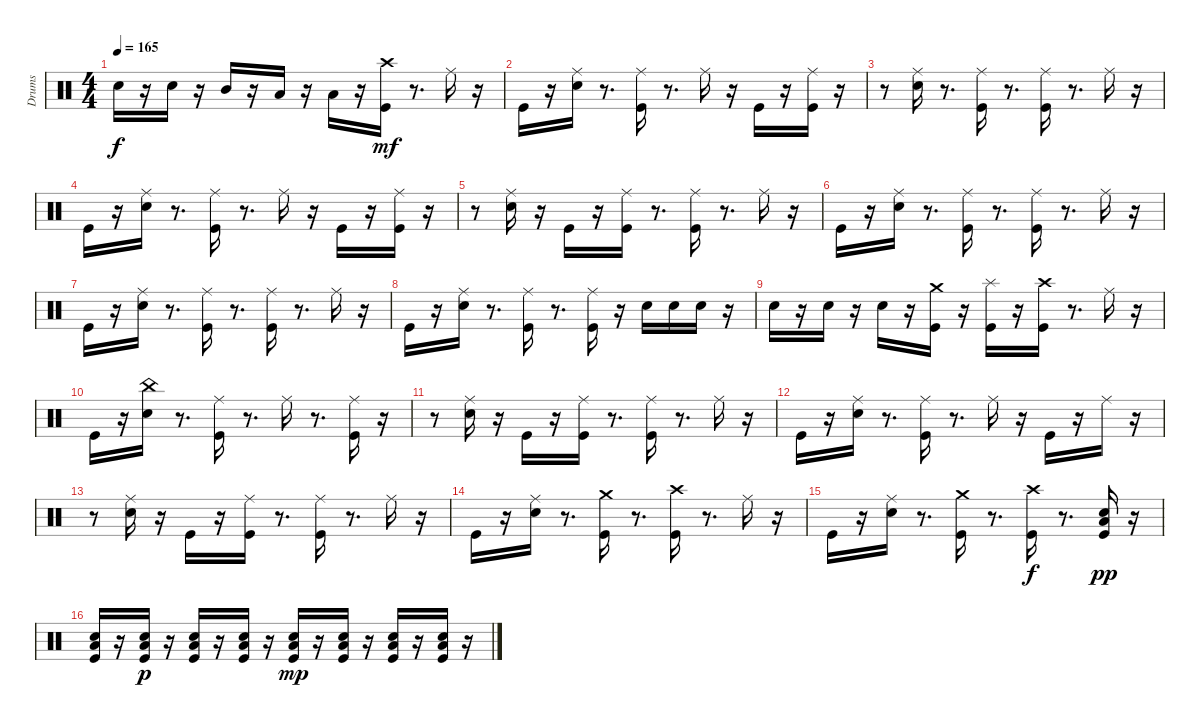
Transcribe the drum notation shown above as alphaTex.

\track ("Drums" "Drums") {instrument percussion}
\staff {score}
\articulation defaults
\ts (4 4)
\tempo 165
\clef neutral
\ks c "Electric Snare (hit)".16{dy f}
r.16 "Electric Snare (hit)".16 r.16 "Mid Tom (hit)".16 r.16 "Low Tom (hit)".16 r.16 "Low Floor Tom (hit)".16 r.16 ("Kick (hit)" "Crash high (hit)").16{dy mf} r.8{d} "Ride (middle)".16 r.16 |
"Kick (hit)".16 r.16 ("Electric Snare (hit)" "Ride (middle)").16 r.8{d} ("Kick (hit)" "Ride (middle)").16 r.8{d} "Ride (middle)".16 r.16 "Kick (hit)".16 r.16 ("Kick (hit)" "Ride (middle)").16 r.16 |
r.8 ("Electric Snare (hit)" "Ride (middle)").16 r.8{d} ("Kick (hit)" "Ride (middle)").16 r.8{d} ("Kick (hit)" "Ride (middle)").16 r.8{d} "Ride (middle)".16 r.16 |
"Kick (hit)".16 r.16 ("Electric Snare (hit)" "Ride (middle)").16 r.8{d} ("Kick (hit)" "Ride (middle)").16 r.8{d} "Ride (middle)".16 r.16 "Kick (hit)".16 r.16 ("Kick (hit)" "Ride (middle)").16 r.16 |
r.8 ("Electric Snare (hit)" "Ride (middle)").16 r.16 "Kick (hit)".16 r.16 ("Kick (hit)" "Ride (middle)").16 r.8{d} ("Kick (hit)" "Ride (middle)").16 r.8{d} "Ride (middle)".16 r.16 |
"Kick (hit)".16 r.16 ("Electric Snare (hit)" "Ride (middle)").16 r.8{d} ("Kick (hit)" "Ride (middle)").16 r.8{d} ("Kick (hit)" "Ride (middle)").16 r.8{d} "Ride (middle)".16 r.16 |
"Kick (hit)".16 r.16 ("Electric Snare (hit)" "Ride (middle)").16 r.8{d} ("Kick (hit)" "Ride (middle)").16 r.8{d} ("Kick (hit)" "Ride (middle)").16 r.8{d} "Ride (middle)".16 r.16 |
"Kick (hit)".16 r.16 ("Electric Snare (hit)" "Ride (middle)").16 r.8{d} ("Kick (hit)" "Ride (middle)").16 r.8{d} ("Kick (hit)" "Ride (middle)").16 r.16 "Electric Snare (hit)".16 "Electric Snare (hit)".16 "Electric Snare (hit)".16 r.16 |
"Electric Snare (hit)".16 r.16 "Electric Snare (hit)".16 r.16 "Electric Snare (hit)".16 r.16 ("Crash medium (hit)" "Kick (hit)").16 r.16 ("Splash (hit)" "Kick (hit)").16 r.16 ("Kick (hit)" "Crash high (hit)").16 r.8{d} "Ride (middle)".16 r.16 |
"Kick (hit)".16 r.16 ("Electric Snare (hit)" "China (hit)").16 r.8{d} ("Kick (hit)" "Ride (middle)").16 r.8{d} "Ride (middle)".16 r.8{d} ("Kick (hit)" "Ride (middle)").16 r.16 |
r.8 ("Electric Snare (hit)" "Ride (middle)").16 r.16 "Kick (hit)".16 r.16 ("Kick (hit)" "Ride (middle)").16 r.8{d} ("Kick (hit)" "Ride (middle)").16 r.8{d} "Ride (middle)".16 r.16 |
"Kick (hit)".16 r.16 ("Electric Snare (hit)" "Ride (middle)").16 r.8{d} ("Kick (hit)" "Ride (middle)").16 r.8{d} "Ride (middle)".16 r.16 "Kick (hit)".16 r.16 "Ride (middle)".16 r.16 |
r.8 ("Electric Snare (hit)" "Ride (middle)").16 r.16 "Kick (hit)".16 r.16 ("Kick (hit)" "Ride (middle)").16 r.8{d} ("Kick (hit)" "Ride (middle)").16 r.8{d} "Ride (middle)".16 r.16 |
"Kick (hit)".16 r.16 ("Electric Snare (hit)" "Ride (middle)").16 r.8{d} ("Kick (hit)" "Crash medium (hit)").16 r.8{d} ("Kick (hit)" "Crash high (hit)").16 r.8{d} "Ride (middle)".16 r.16 |
"Kick (hit)".16 r.16 ("Electric Snare (hit)" "Ride (middle)").16 r.8{d} ("Kick (hit)" "Crash medium (hit)").16 r.8{d} ("Kick (hit)" "Crash high (hit)").16{dy f} r.8{d} ("Electric Snare (hit)" "Low Floor Tom (hit)" "Kick (hit)").16{dy pp} r.16 |
("Electric Snare (hit)" "Low Floor Tom (hit)" "Kick (hit)").16 r.16 ("Electric Snare (hit)" "Low Floor Tom (hit)" "Kick (hit)").16{dy p} r.16 ("Electric Snare (hit)" "Low Floor Tom (hit)" "Kick (hit)").16 r.16 ("Electric Snare (hit)" "Low Floor Tom (hit)" "Kick (hit)").16 r.16 ("Electric Snare (hit)" "Low Floor Tom (hit)" "Kick (hit)").16{dy mp} r.16 ("Electric Snare (hit)" "Low Floor Tom (hit)" "Kick (hit)").16 r.16 ("Electric Snare (hit)" "Kick (hit)" "Low Floor Tom (hit)").16 r.16 ("Electric Snare (hit)" "Low Floor Tom (hit)" "Kick (hit)").16 r.16
